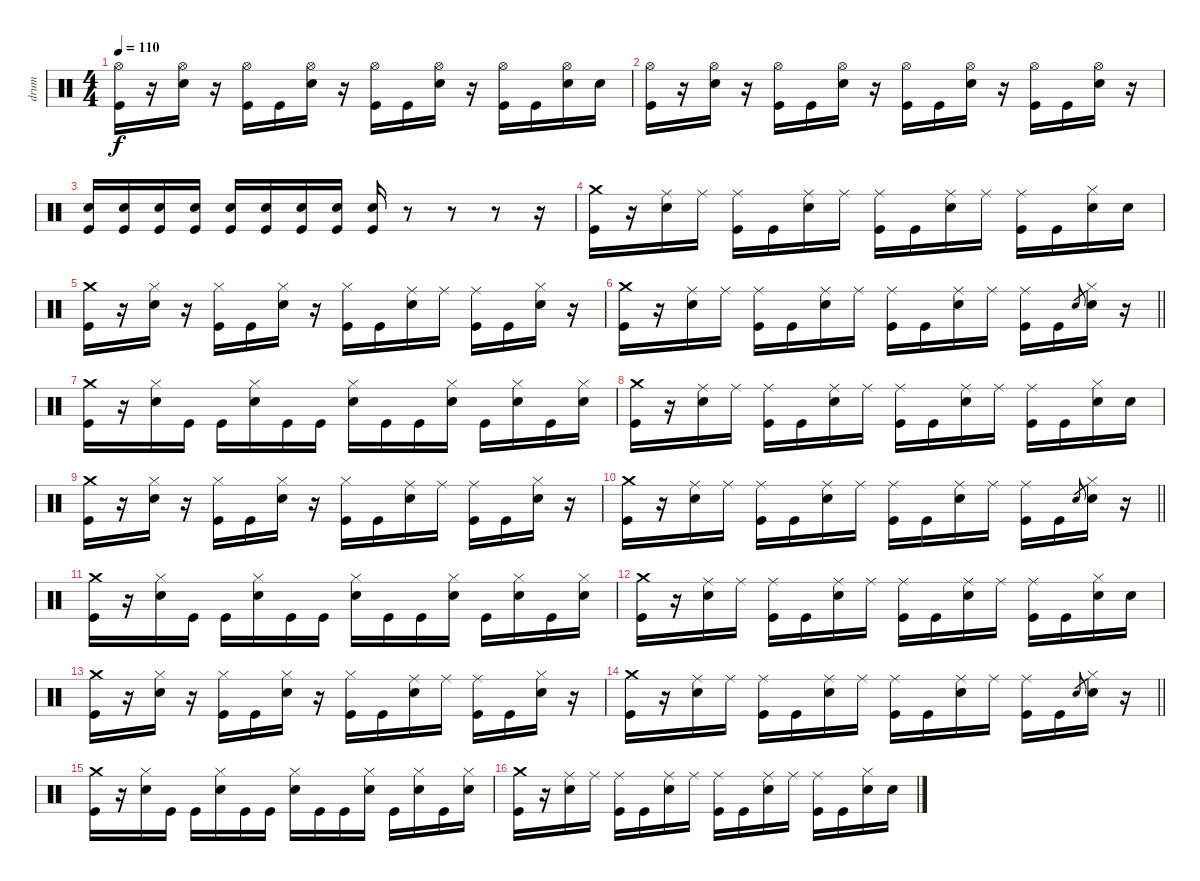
\track ("drum" "drum") {instrument percussion}
\staff {score}
\articulation defaults
\ts (4 4)
\tempo 110
\clef neutral
\ks c
("Hi-Hat (open)" "Kick (hit)").16{dy f} r.16 ("Hi-Hat (open)" "Electric Snare (hit)").16 r.16 ("Hi-Hat (open)" "Kick (hit)").16 "Kick (hit)".16 ("Hi-Hat (open)" "Electric Snare (hit)").16 r.16 ("Hi-Hat (open)" "Kick (hit)").16 "Kick (hit)".16 ("Hi-Hat (open)" "Electric Snare (hit)").16 r.16 ("Hi-Hat (open)" "Kick (hit)").16 "Kick (hit)".16 ("Hi-Hat (open)" "Electric Snare (hit)").16 "Electric Snare (hit)".16 |
("Hi-Hat (open)" "Kick (hit)").16 r.16 ("Hi-Hat (open)" "Electric Snare (hit)").16 r.16 ("Hi-Hat (open)" "Kick (hit)").16 "Kick (hit)".16 ("Hi-Hat (open)" "Electric Snare (hit)").16 r.16 ("Hi-Hat (open)" "Kick (hit)").16 "Kick (hit)".16 ("Hi-Hat (open)" "Electric Snare (hit)").16 r.16 ("Hi-Hat (open)" "Kick (hit)").16 "Kick (hit)".16 ("Hi-Hat (open)" "Electric Snare (hit)").16 r.16 |
("Electric Snare (hit)" "Kick (hit)").16 ("Electric Snare (hit)" "Kick (hit)").16 ("Electric Snare (hit)" "Kick (hit)").16 ("Electric Snare (hit)" "Kick (hit)").16 ("Electric Snare (hit)" "Kick (hit)").16 ("Electric Snare (hit)" "Kick (hit)").16 ("Electric Snare (hit)" "Kick (hit)").16 ("Electric Snare (hit)" "Kick (hit)").16 ("Electric Snare (hit)" "Kick (hit)").16 r.8 r.8 r.8 r.16 |
("Crash medium (hit)" "Kick (hit)").16 r.16 ("Ride (middle)" "Electric Snare (hit)").16 "Ride (middle)".16 ("Ride (middle)" "Kick (hit)").16 "Kick (hit)".16 ("Ride (middle)" "Electric Snare (hit)").16 "Ride (middle)".16 ("Ride (middle)" "Kick (hit)").16 "Kick (hit)".16 ("Ride (middle)" "Electric Snare (hit)").16 "Ride (middle)".16 ("Ride (middle)" "Kick (hit)").16 "Kick (hit)".16 ("Hi-Hat (closed)" "Electric Snare (hit)").16 "Electric Snare (hit)".16 |
("Crash medium (hit)" "Kick (hit)").16 r.16 ("Hi-Hat (closed)" "Electric Snare (hit)").16 r.16 ("Hi-Hat (closed)" "Kick (hit)").16 "Kick (hit)".16 ("Hi-Hat (closed)" "Electric Snare (hit)").16 r.16 ("Hi-Hat (closed)" "Kick (hit)").16 "Kick (hit)".16 ("Ride (middle)" "Electric Snare (hit)").16 "Ride (middle)".16 ("Ride (middle)" "Kick (hit)").16 "Kick (hit)".16 ("Hi-Hat (closed)" "Electric Snare (hit)").16 r.16 |
\barLineRight lightlight
("Crash medium (hit)" "Kick (hit)").16 r.16 ("Ride (middle)" "Electric Snare (hit)").16 "Ride (middle)".16 ("Ride (middle)" "Kick (hit)").16 "Kick (hit)".16 ("Ride (middle)" "Electric Snare (hit)").16 "Ride (middle)".16 ("Ride (middle)" "Kick (hit)").16 "Kick (hit)".16 ("Ride (middle)" "Electric Snare (hit)").16 "Ride (middle)".16 ("Ride (middle)" "Kick (hit)").16 "Kick (hit)".16 "Electric Snare (hit)".8{gr} ("Hi-Hat (closed)" "Electric Snare (hit)").16 r.16 |
("Crash medium (hit)" "Kick (hit)").16 r.16 ("Hi-Hat (closed)" "Electric Snare (hit)").16 "Kick (hit)".16 "Kick (hit)".16 ("Hi-Hat (closed)" "Electric Snare (hit)").16 "Kick (hit)".16 "Kick (hit)".16 ("Hi-Hat (closed)" "Electric Snare (hit)").16 "Kick (hit)".16 "Kick (hit)".16 ("Hi-Hat (closed)" "Electric Snare (hit)").16 "Kick (hit)".16 ("Hi-Hat (closed)" "Electric Snare (hit)").16 "Kick (hit)".16 ("Hi-Hat (closed)" "Electric Snare (hit)").16 |
("Crash medium (hit)" "Kick (hit)").16 r.16 ("Ride (middle)" "Electric Snare (hit)").16 "Ride (middle)".16 ("Ride (middle)" "Kick (hit)").16 "Kick (hit)".16 ("Ride (middle)" "Electric Snare (hit)").16 "Ride (middle)".16 ("Ride (middle)" "Kick (hit)").16 "Kick (hit)".16 ("Ride (middle)" "Electric Snare (hit)").16 "Ride (middle)".16 ("Ride (middle)" "Kick (hit)").16 "Kick (hit)".16 ("Hi-Hat (closed)" "Electric Snare (hit)").16 "Electric Snare (hit)".16 |
("Crash medium (hit)" "Kick (hit)").16 r.16 ("Hi-Hat (closed)" "Electric Snare (hit)").16 r.16 ("Hi-Hat (closed)" "Kick (hit)").16 "Kick (hit)".16 ("Hi-Hat (closed)" "Electric Snare (hit)").16 r.16 ("Hi-Hat (closed)" "Kick (hit)").16 "Kick (hit)".16 ("Ride (middle)" "Electric Snare (hit)").16 "Ride (middle)".16 ("Ride (middle)" "Kick (hit)").16 "Kick (hit)".16 ("Hi-Hat (closed)" "Electric Snare (hit)").16 r.16 |
\barLineRight lightlight
("Crash medium (hit)" "Kick (hit)").16 r.16 ("Ride (middle)" "Electric Snare (hit)").16 "Ride (middle)".16 ("Ride (middle)" "Kick (hit)").16 "Kick (hit)".16 ("Ride (middle)" "Electric Snare (hit)").16 "Ride (middle)".16 ("Ride (middle)" "Kick (hit)").16 "Kick (hit)".16 ("Ride (middle)" "Electric Snare (hit)").16 "Ride (middle)".16 ("Ride (middle)" "Kick (hit)").16 "Kick (hit)".16 "Electric Snare (hit)".8{gr} ("Hi-Hat (closed)" "Electric Snare (hit)").16 r.16 |
("Crash medium (hit)" "Kick (hit)").16 r.16 ("Hi-Hat (closed)" "Electric Snare (hit)").16 "Kick (hit)".16 "Kick (hit)".16 ("Hi-Hat (closed)" "Electric Snare (hit)").16 "Kick (hit)".16 "Kick (hit)".16 ("Hi-Hat (closed)" "Electric Snare (hit)").16 "Kick (hit)".16 "Kick (hit)".16 ("Hi-Hat (closed)" "Electric Snare (hit)").16 "Kick (hit)".16 ("Hi-Hat (closed)" "Electric Snare (hit)").16 "Kick (hit)".16 ("Hi-Hat (closed)" "Electric Snare (hit)").16 |
("Crash medium (hit)" "Kick (hit)").16 r.16 ("Ride (middle)" "Electric Snare (hit)").16 "Ride (middle)".16 ("Ride (middle)" "Kick (hit)").16 "Kick (hit)".16 ("Ride (middle)" "Electric Snare (hit)").16 "Ride (middle)".16 ("Ride (middle)" "Kick (hit)").16 "Kick (hit)".16 ("Ride (middle)" "Electric Snare (hit)").16 "Ride (middle)".16 ("Ride (middle)" "Kick (hit)").16 "Kick (hit)".16 ("Hi-Hat (closed)" "Electric Snare (hit)").16 "Electric Snare (hit)".16 |
("Crash medium (hit)" "Kick (hit)").16 r.16 ("Hi-Hat (closed)" "Electric Snare (hit)").16 r.16 ("Hi-Hat (closed)" "Kick (hit)").16 "Kick (hit)".16 ("Hi-Hat (closed)" "Electric Snare (hit)").16 r.16 ("Hi-Hat (closed)" "Kick (hit)").16 "Kick (hit)".16 ("Ride (middle)" "Electric Snare (hit)").16 "Ride (middle)".16 ("Ride (middle)" "Kick (hit)").16 "Kick (hit)".16 ("Hi-Hat (closed)" "Electric Snare (hit)").16 r.16 |
\barLineRight lightlight
("Crash medium (hit)" "Kick (hit)").16 r.16 ("Ride (middle)" "Electric Snare (hit)").16 "Ride (middle)".16 ("Ride (middle)" "Kick (hit)").16 "Kick (hit)".16 ("Ride (middle)" "Electric Snare (hit)").16 "Ride (middle)".16 ("Ride (middle)" "Kick (hit)").16 "Kick (hit)".16 ("Ride (middle)" "Electric Snare (hit)").16 "Ride (middle)".16 ("Ride (middle)" "Kick (hit)").16 "Kick (hit)".16 "Electric Snare (hit)".8{gr} ("Hi-Hat (closed)" "Electric Snare (hit)").16 r.16 |
("Crash medium (hit)" "Kick (hit)").16 r.16 ("Hi-Hat (closed)" "Electric Snare (hit)").16 "Kick (hit)".16 "Kick (hit)".16 ("Hi-Hat (closed)" "Electric Snare (hit)").16 "Kick (hit)".16 "Kick (hit)".16 ("Hi-Hat (closed)" "Electric Snare (hit)").16 "Kick (hit)".16 "Kick (hit)".16 ("Hi-Hat (closed)" "Electric Snare (hit)").16 "Kick (hit)".16 ("Hi-Hat (closed)" "Electric Snare (hit)").16 "Kick (hit)".16 ("Hi-Hat (closed)" "Electric Snare (hit)").16 |
("Crash medium (hit)" "Kick (hit)").16 r.16 ("Ride (middle)" "Electric Snare (hit)").16 "Ride (middle)".16 ("Ride (middle)" "Kick (hit)").16 "Kick (hit)".16 ("Ride (middle)" "Electric Snare (hit)").16 "Ride (middle)".16 ("Ride (middle)" "Kick (hit)").16 "Kick (hit)".16 ("Ride (middle)" "Electric Snare (hit)").16 "Ride (middle)".16 ("Ride (middle)" "Kick (hit)").16 "Kick (hit)".16 ("Hi-Hat (closed)" "Electric Snare (hit)").16 "Electric Snare (hit)".16
